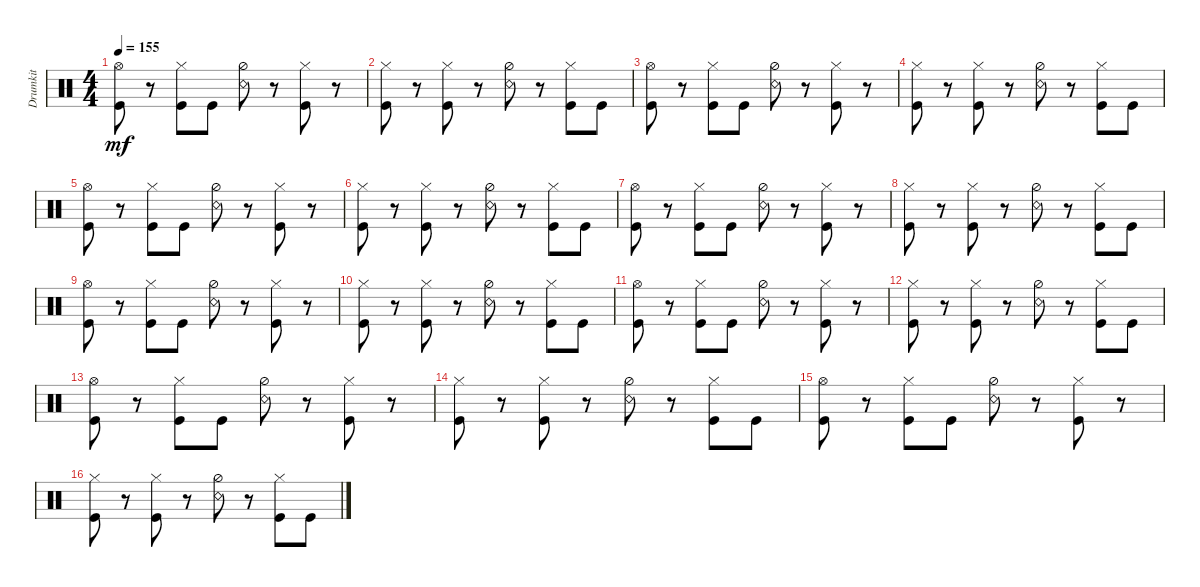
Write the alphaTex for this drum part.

\track ("Drumkit" "Drumkit") {instrument percussion}
\staff {score}
\articulation defaults
\ts (4 4)
\tempo 155
\clef neutral
\ks c
("Kick (hit)" "Hi-Hat (open)").8{dy mf} r.8 ("Kick (hit)" "Hi-Hat (closed)").8 "Kick (hit)".8 ("Snare (rim shot)" "Hi-Hat (half)").8 r.8 ("Kick (hit)" "Hi-Hat (closed)").8 r.8 |
("Kick (hit)" "Hi-Hat (closed)").8 r.8 ("Kick (hit)" "Hi-Hat (closed)").8 r.8 ("Snare (rim shot)" "Hi-Hat (half)").8 r.8 ("Kick (hit)" "Hi-Hat (closed)").8 "Kick (hit)".8 |
("Kick (hit)" "Hi-Hat (open)").8 r.8 ("Kick (hit)" "Hi-Hat (closed)").8 "Kick (hit)".8 ("Snare (rim shot)" "Hi-Hat (half)").8 r.8 ("Kick (hit)" "Hi-Hat (closed)").8 r.8 |
("Kick (hit)" "Hi-Hat (closed)").8 r.8 ("Kick (hit)" "Hi-Hat (closed)").8 r.8 ("Snare (rim shot)" "Hi-Hat (half)").8 r.8 ("Kick (hit)" "Hi-Hat (closed)").8 "Kick (hit)".8 |
("Kick (hit)" "Hi-Hat (open)").8 r.8 ("Kick (hit)" "Hi-Hat (closed)").8 "Kick (hit)".8 ("Snare (rim shot)" "Hi-Hat (half)").8 r.8 ("Kick (hit)" "Hi-Hat (closed)").8 r.8 |
("Kick (hit)" "Hi-Hat (closed)").8 r.8 ("Kick (hit)" "Hi-Hat (closed)").8 r.8 ("Snare (rim shot)" "Hi-Hat (half)").8 r.8 ("Kick (hit)" "Hi-Hat (closed)").8 "Kick (hit)".8 |
("Kick (hit)" "Hi-Hat (open)").8 r.8 ("Kick (hit)" "Hi-Hat (closed)").8 "Kick (hit)".8 ("Snare (rim shot)" "Hi-Hat (half)").8 r.8 ("Kick (hit)" "Hi-Hat (closed)").8 r.8 |
("Kick (hit)" "Hi-Hat (closed)").8 r.8 ("Kick (hit)" "Hi-Hat (closed)").8 r.8 ("Snare (rim shot)" "Hi-Hat (half)").8 r.8 ("Kick (hit)" "Hi-Hat (closed)").8 "Kick (hit)".8 |
("Kick (hit)" "Hi-Hat (open)").8 r.8 ("Kick (hit)" "Hi-Hat (closed)").8 "Kick (hit)".8 ("Snare (rim shot)" "Hi-Hat (half)").8 r.8 ("Kick (hit)" "Hi-Hat (closed)").8 r.8 |
("Kick (hit)" "Hi-Hat (closed)").8 r.8 ("Kick (hit)" "Hi-Hat (closed)").8 r.8 ("Snare (rim shot)" "Hi-Hat (half)").8 r.8 ("Kick (hit)" "Hi-Hat (closed)").8 "Kick (hit)".8 |
("Kick (hit)" "Hi-Hat (open)").8 r.8 ("Kick (hit)" "Hi-Hat (closed)").8 "Kick (hit)".8 ("Snare (rim shot)" "Hi-Hat (half)").8 r.8 ("Kick (hit)" "Hi-Hat (closed)").8 r.8 |
("Kick (hit)" "Hi-Hat (closed)").8 r.8 ("Kick (hit)" "Hi-Hat (closed)").8 r.8 ("Snare (rim shot)" "Hi-Hat (half)").8 r.8 ("Kick (hit)" "Hi-Hat (closed)").8 "Kick (hit)".8 |
("Kick (hit)" "Hi-Hat (open)").8 r.8 ("Kick (hit)" "Hi-Hat (closed)").8 "Kick (hit)".8 ("Snare (rim shot)" "Hi-Hat (half)").8 r.8 ("Kick (hit)" "Hi-Hat (closed)").8 r.8 |
("Kick (hit)" "Hi-Hat (closed)").8 r.8 ("Kick (hit)" "Hi-Hat (closed)").8 r.8 ("Snare (rim shot)" "Hi-Hat (half)").8 r.8 ("Kick (hit)" "Hi-Hat (closed)").8 "Kick (hit)".8 |
("Kick (hit)" "Hi-Hat (open)").8 r.8 ("Kick (hit)" "Hi-Hat (closed)").8 "Kick (hit)".8 ("Snare (rim shot)" "Hi-Hat (half)").8 r.8 ("Kick (hit)" "Hi-Hat (closed)").8 r.8 |
("Kick (hit)" "Hi-Hat (closed)").8 r.8 ("Kick (hit)" "Hi-Hat (closed)").8 r.8 ("Snare (rim shot)" "Hi-Hat (half)").8 r.8 ("Kick (hit)" "Hi-Hat (closed)").8 "Kick (hit)".8
